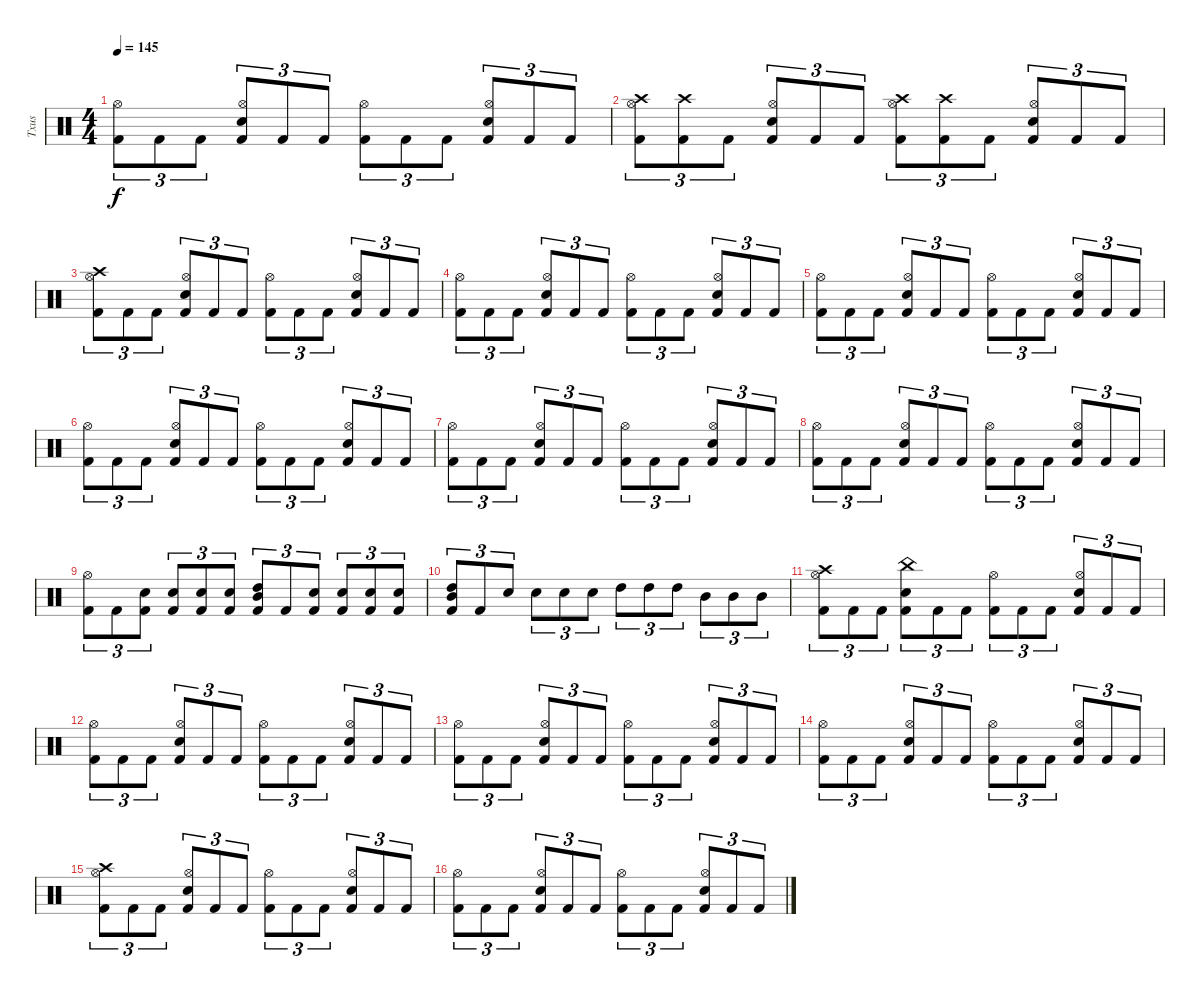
\track ("Txus" "Txus") {instrument percussion}
\staff {score}
\articulation defaults
\ts (4 4)
\tempo 145
\clef neutral
\ks c
("Kick (hit) 2" "Hi-Hat (open)").8{tu (3 2) dy f} "Kick (hit) 2".8{tu (3 2)} "Kick (hit) 2".8{tu (3 2)} ("Kick (hit) 2" "Hi-Hat (open)" "Electric Snare (hit)").8{tu (3 2)} "Kick (hit) 2".8{tu (3 2)} "Kick (hit) 2".8{tu (3 2)} ("Kick (hit) 2" "Hi-Hat (open)").8{tu (3 2)} "Kick (hit) 2".8{tu (3 2)} "Kick (hit) 2".8{tu (3 2)} ("Kick (hit) 2" "Hi-Hat (open)" "Electric Snare (hit)").8{tu (3 2)} "Kick (hit) 2".8{tu (3 2)} "Kick (hit) 2".8{tu (3 2)} |
("Kick (hit) 2" "Hi-Hat (open)" "Crash high (hit)").8{tu (3 2)} ("Kick (hit) 2" "Crash high (hit)").8{tu (3 2)} "Kick (hit) 2".8{tu (3 2)} ("Kick (hit) 2" "Hi-Hat (open)" "Electric Snare (hit)").8{tu (3 2)} "Kick (hit) 2".8{tu (3 2)} "Kick (hit) 2".8{tu (3 2)} ("Kick (hit) 2" "Hi-Hat (open)" "Crash high (hit)").8{tu (3 2)} ("Kick (hit) 2" "Crash high (hit)").8{tu (3 2)} "Kick (hit) 2".8{tu (3 2)} ("Kick (hit) 2" "Hi-Hat (open)" "Electric Snare (hit)").8{tu (3 2)} "Kick (hit) 2".8{tu (3 2)} "Kick (hit) 2".8{tu (3 2)} |
("Kick (hit) 2" "Hi-Hat (open)" "Crash high (hit)").8{tu (3 2)} "Kick (hit) 2".8{tu (3 2)} "Kick (hit) 2".8{tu (3 2)} ("Kick (hit) 2" "Hi-Hat (open)" "Electric Snare (hit)").8{tu (3 2)} "Kick (hit) 2".8{tu (3 2)} "Kick (hit) 2".8{tu (3 2)} ("Kick (hit) 2" "Hi-Hat (open)").8{tu (3 2)} "Kick (hit) 2".8{tu (3 2)} "Kick (hit) 2".8{tu (3 2)} ("Kick (hit) 2" "Hi-Hat (open)" "Electric Snare (hit)").8{tu (3 2)} "Kick (hit) 2".8{tu (3 2)} "Kick (hit) 2".8{tu (3 2)} |
("Kick (hit) 2" "Hi-Hat (open)").8{tu (3 2)} "Kick (hit) 2".8{tu (3 2)} "Kick (hit) 2".8{tu (3 2)} ("Kick (hit) 2" "Hi-Hat (open)" "Electric Snare (hit)").8{tu (3 2)} "Kick (hit) 2".8{tu (3 2)} "Kick (hit) 2".8{tu (3 2)} ("Kick (hit) 2" "Hi-Hat (open)").8{tu (3 2)} "Kick (hit) 2".8{tu (3 2)} "Kick (hit) 2".8{tu (3 2)} ("Kick (hit) 2" "Hi-Hat (open)" "Electric Snare (hit)").8{tu (3 2)} "Kick (hit) 2".8{tu (3 2)} "Kick (hit) 2".8{tu (3 2)} |
("Kick (hit) 2" "Hi-Hat (open)").8{tu (3 2)} "Kick (hit) 2".8{tu (3 2)} "Kick (hit) 2".8{tu (3 2)} ("Kick (hit) 2" "Hi-Hat (open)" "Electric Snare (hit)").8{tu (3 2)} "Kick (hit) 2".8{tu (3 2)} "Kick (hit) 2".8{tu (3 2)} ("Kick (hit) 2" "Hi-Hat (open)").8{tu (3 2)} "Kick (hit) 2".8{tu (3 2)} "Kick (hit) 2".8{tu (3 2)} ("Kick (hit) 2" "Hi-Hat (open)" "Electric Snare (hit)").8{tu (3 2)} "Kick (hit) 2".8{tu (3 2)} "Kick (hit) 2".8{tu (3 2)} |
("Kick (hit) 2" "Hi-Hat (open)").8{tu (3 2)} "Kick (hit) 2".8{tu (3 2)} "Kick (hit) 2".8{tu (3 2)} ("Kick (hit) 2" "Hi-Hat (open)" "Electric Snare (hit)").8{tu (3 2)} "Kick (hit) 2".8{tu (3 2)} "Kick (hit) 2".8{tu (3 2)} ("Kick (hit) 2" "Hi-Hat (open)").8{tu (3 2)} "Kick (hit) 2".8{tu (3 2)} "Kick (hit) 2".8{tu (3 2)} ("Kick (hit) 2" "Hi-Hat (open)" "Electric Snare (hit)").8{tu (3 2)} "Kick (hit) 2".8{tu (3 2)} "Kick (hit) 2".8{tu (3 2)} |
("Kick (hit) 2" "Hi-Hat (open)").8{tu (3 2)} "Kick (hit) 2".8{tu (3 2)} "Kick (hit) 2".8{tu (3 2)} ("Kick (hit) 2" "Hi-Hat (open)" "Electric Snare (hit)").8{tu (3 2)} "Kick (hit) 2".8{tu (3 2)} "Kick (hit) 2".8{tu (3 2)} ("Kick (hit) 2" "Hi-Hat (open)").8{tu (3 2)} "Kick (hit) 2".8{tu (3 2)} "Kick (hit) 2".8{tu (3 2)} ("Kick (hit) 2" "Hi-Hat (open)" "Electric Snare (hit)").8{tu (3 2)} "Kick (hit) 2".8{tu (3 2)} "Kick (hit) 2".8{tu (3 2)} |
("Kick (hit) 2" "Hi-Hat (open)").8{tu (3 2)} "Kick (hit) 2".8{tu (3 2)} "Kick (hit) 2".8{tu (3 2)} ("Kick (hit) 2" "Hi-Hat (open)" "Electric Snare (hit)").8{tu (3 2)} "Kick (hit) 2".8{tu (3 2)} "Kick (hit) 2".8{tu (3 2)} ("Kick (hit) 2" "Hi-Hat (open)").8{tu (3 2)} "Kick (hit) 2".8{tu (3 2)} "Kick (hit) 2".8{tu (3 2)} ("Kick (hit) 2" "Hi-Hat (open)" "Electric Snare (hit)").8{tu (3 2)} "Kick (hit) 2".8{tu (3 2)} "Kick (hit) 2".8{tu (3 2)} |
("Kick (hit) 2" "Hi-Hat (open)").8{tu (3 2)} "Kick (hit) 2".8{tu (3 2)} ("Electric Snare (hit)" "Kick (hit) 2").8{tu (3 2)} ("Electric Snare (hit)" "Kick (hit) 2").8{tu (3 2)} ("Electric Snare (hit)" "Kick (hit) 2").8{tu (3 2)} ("Electric Snare (hit)" "Kick (hit) 2").8{tu (3 2)} ("High Tom (hit)" "Mid Tom (hit)" "Kick (hit) 2").8{tu (3 2)} "Kick (hit) 2".8{tu (3 2)} ("Electric Snare (hit)" "Kick (hit) 2").8{tu (3 2)} ("Electric Snare (hit)" "Kick (hit) 2").8{tu (3 2)} ("Electric Snare (hit)" "Kick (hit) 2").8{tu (3 2)} ("Electric Snare (hit)" "Kick (hit) 2").8{tu (3 2)} |
("High Tom (hit)" "Mid Tom (hit)" "Kick (hit) 2").8{tu (3 2)} "Kick (hit) 2".8{tu (3 2)} "Electric Snare (hit)".8{tu (3 2)} "Electric Snare (hit)".8{tu (3 2)} "Electric Snare (hit)".8{tu (3 2)} "Electric Snare (hit)".8{tu (3 2)} "High Tom (hit)".8{tu (3 2)} "High Tom (hit)".8{tu (3 2)} "High Tom (hit)".8{tu (3 2)} "Mid Tom (hit)".8{tu (3 2)} "Mid Tom (hit)".8{tu (3 2)} "Mid Tom (hit)".8{tu (3 2)} |
("Kick (hit) 2" "Hi-Hat (open)" "Crash high (hit)").8{tu (3 2)} "Kick (hit) 2".8{tu (3 2)} "Kick (hit) 2".8{tu (3 2)} ("Kick (hit) 2" "China (hit)" "Electric Snare (hit)").8{tu (3 2)} "Kick (hit) 2".8{tu (3 2)} "Kick (hit) 2".8{tu (3 2)} ("Kick (hit) 2" "Hi-Hat (open)").8{tu (3 2)} "Kick (hit) 2".8{tu (3 2)} "Kick (hit) 2".8{tu (3 2)} ("Kick (hit) 2" "Hi-Hat (open)" "Electric Snare (hit)").8{tu (3 2)} "Kick (hit) 2".8{tu (3 2)} "Kick (hit) 2".8{tu (3 2)} |
("Kick (hit) 2" "Hi-Hat (open)").8{tu (3 2)} "Kick (hit) 2".8{tu (3 2)} "Kick (hit) 2".8{tu (3 2)} ("Kick (hit) 2" "Hi-Hat (open)" "Electric Snare (hit)").8{tu (3 2)} "Kick (hit) 2".8{tu (3 2)} "Kick (hit) 2".8{tu (3 2)} ("Kick (hit) 2" "Hi-Hat (open)").8{tu (3 2)} "Kick (hit) 2".8{tu (3 2)} "Kick (hit) 2".8{tu (3 2)} ("Kick (hit) 2" "Hi-Hat (open)" "Electric Snare (hit)").8{tu (3 2)} "Kick (hit) 2".8{tu (3 2)} "Kick (hit) 2".8{tu (3 2)} |
("Kick (hit) 2" "Hi-Hat (open)").8{tu (3 2)} "Kick (hit) 2".8{tu (3 2)} "Kick (hit) 2".8{tu (3 2)} ("Kick (hit) 2" "Hi-Hat (open)" "Electric Snare (hit)").8{tu (3 2)} "Kick (hit) 2".8{tu (3 2)} "Kick (hit) 2".8{tu (3 2)} ("Kick (hit) 2" "Hi-Hat (open)").8{tu (3 2)} "Kick (hit) 2".8{tu (3 2)} "Kick (hit) 2".8{tu (3 2)} ("Kick (hit) 2" "Hi-Hat (open)" "Electric Snare (hit)").8{tu (3 2)} "Kick (hit) 2".8{tu (3 2)} "Kick (hit) 2".8{tu (3 2)} |
("Kick (hit) 2" "Hi-Hat (open)").8{tu (3 2)} "Kick (hit) 2".8{tu (3 2)} "Kick (hit) 2".8{tu (3 2)} ("Kick (hit) 2" "Hi-Hat (open)" "Electric Snare (hit)").8{tu (3 2)} "Kick (hit) 2".8{tu (3 2)} "Kick (hit) 2".8{tu (3 2)} ("Kick (hit) 2" "Hi-Hat (open)").8{tu (3 2)} "Kick (hit) 2".8{tu (3 2)} "Kick (hit) 2".8{tu (3 2)} ("Kick (hit) 2" "Hi-Hat (open)" "Electric Snare (hit)").8{tu (3 2)} "Kick (hit) 2".8{tu (3 2)} "Kick (hit) 2".8{tu (3 2)} |
("Kick (hit) 2" "Hi-Hat (open)" "Crash high (hit)").8{tu (3 2)} "Kick (hit) 2".8{tu (3 2)} "Kick (hit) 2".8{tu (3 2)} ("Kick (hit) 2" "Hi-Hat (open)" "Electric Snare (hit)").8{tu (3 2)} "Kick (hit) 2".8{tu (3 2)} "Kick (hit) 2".8{tu (3 2)} ("Kick (hit) 2" "Hi-Hat (open)").8{tu (3 2)} "Kick (hit) 2".8{tu (3 2)} "Kick (hit) 2".8{tu (3 2)} ("Kick (hit) 2" "Hi-Hat (open)" "Electric Snare (hit)").8{tu (3 2)} "Kick (hit) 2".8{tu (3 2)} "Kick (hit) 2".8{tu (3 2)} |
("Kick (hit) 2" "Hi-Hat (open)").8{tu (3 2)} "Kick (hit) 2".8{tu (3 2)} "Kick (hit) 2".8{tu (3 2)} ("Kick (hit) 2" "Hi-Hat (open)" "Electric Snare (hit)").8{tu (3 2)} "Kick (hit) 2".8{tu (3 2)} "Kick (hit) 2".8{tu (3 2)} ("Kick (hit) 2" "Hi-Hat (open)").8{tu (3 2)} "Kick (hit) 2".8{tu (3 2)} "Kick (hit) 2".8{tu (3 2)} ("Kick (hit) 2" "Hi-Hat (open)" "Electric Snare (hit)").8{tu (3 2)} "Kick (hit) 2".8{tu (3 2)} "Kick (hit) 2".8{tu (3 2)}
